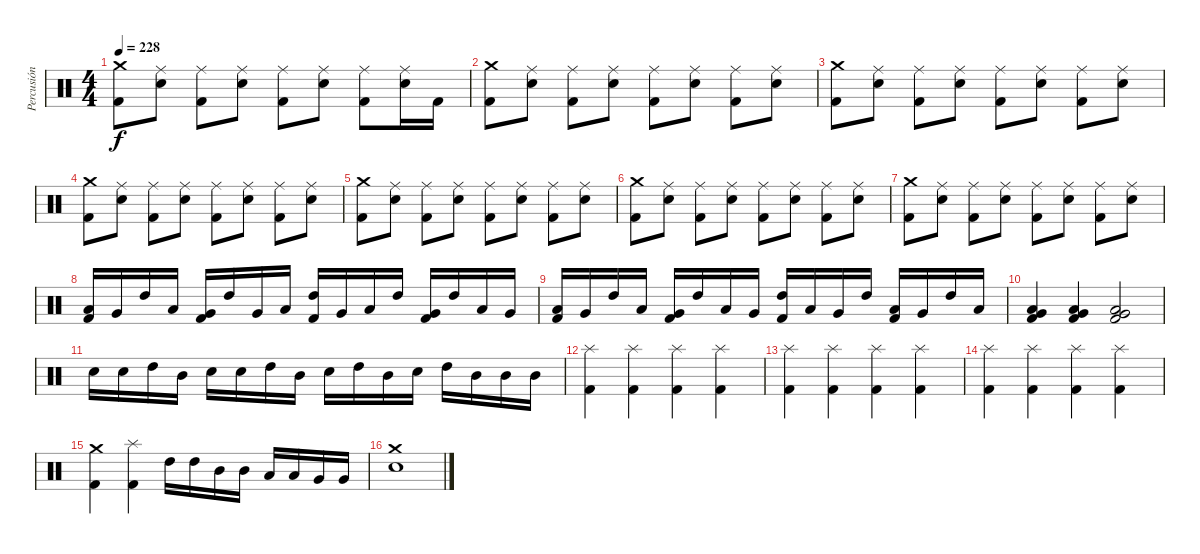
\track ("Percusión" "Percusión") {instrument percussion}
\staff {score}
\articulation defaults
\ts (4 4)
\tempo 228
\clef neutral
\ks c
("Crash medium (hit)" "Kick (hit) 2").8{dy f} ("Ride (middle)" "Electric Snare (hit)").8 ("Ride (middle)" "Kick (hit) 2").8 ("Ride (middle)" "Electric Snare (hit)").8 ("Ride (middle)" "Kick (hit) 2").8 ("Ride (middle)" "Electric Snare (hit)").8 ("Ride (middle)" "Kick (hit) 2").8 ("Ride (middle)" "Electric Snare (hit)").16 "Kick (hit) 2".16 |
("Crash medium (hit)" "Kick (hit) 2").8 ("Ride (middle)" "Electric Snare (hit)").8 ("Ride (middle)" "Kick (hit) 2").8 ("Ride (middle)" "Electric Snare (hit)").8 ("Ride (middle)" "Kick (hit) 2").8 ("Ride (middle)" "Electric Snare (hit)").8 ("Ride (middle)" "Kick (hit) 2").8 ("Ride (middle)" "Electric Snare (hit)").8 |
("Crash medium (hit)" "Kick (hit) 2").8 ("Ride (middle)" "Electric Snare (hit)").8 ("Ride (middle)" "Kick (hit) 2").8 ("Ride (middle)" "Electric Snare (hit)").8 ("Ride (middle)" "Kick (hit) 2").8 ("Ride (middle)" "Electric Snare (hit)").8 ("Ride (middle)" "Kick (hit) 2").8 ("Ride (middle)" "Electric Snare (hit)").8 |
("Crash medium (hit)" "Kick (hit) 2").8 ("Ride (middle)" "Electric Snare (hit)").8 ("Ride (middle)" "Kick (hit) 2").8 ("Ride (middle)" "Electric Snare (hit)").8 ("Ride (middle)" "Kick (hit) 2").8 ("Ride (middle)" "Electric Snare (hit)").8 ("Ride (middle)" "Kick (hit) 2").8 ("Ride (middle)" "Electric Snare (hit)").8 |
("Crash medium (hit)" "Kick (hit) 2").8 ("Ride (middle)" "Electric Snare (hit)").8 ("Ride (middle)" "Kick (hit) 2").8 ("Ride (middle)" "Electric Snare (hit)").8 ("Ride (middle)" "Kick (hit) 2").8 ("Ride (middle)" "Electric Snare (hit)").8 ("Ride (middle)" "Kick (hit) 2").8 ("Ride (middle)" "Electric Snare (hit)").8 |
("Crash medium (hit)" "Kick (hit) 2").8 ("Ride (middle)" "Electric Snare (hit)").8 ("Ride (middle)" "Kick (hit) 2").8 ("Ride (middle)" "Electric Snare (hit)").8 ("Ride (middle)" "Kick (hit) 2").8 ("Ride (middle)" "Electric Snare (hit)").8 ("Ride (middle)" "Kick (hit) 2").8 ("Ride (middle)" "Electric Snare (hit)").8 |
("Crash medium (hit)" "Kick (hit) 2").8 ("Ride (middle)" "Electric Snare (hit)").8 ("Ride (middle)" "Kick (hit) 2").8 ("Ride (middle)" "Electric Snare (hit)").8 ("Ride (middle)" "Kick (hit) 2").8 ("Ride (middle)" "Electric Snare (hit)").8 ("Ride (middle)" "Kick (hit) 2").8 ("Ride (middle)" "Electric Snare (hit)").8 |
("Low Tom (hit)" "Kick (hit) 2").16 "Very Low Tom (hit)".16 "High Tom (hit)".16 "Low Tom (hit)".16 ("Very Low Tom (hit)" "Kick (hit) 2").16 "High Tom (hit)".16 "Very Low Tom (hit)".16 "Low Tom (hit)".16 ("High Tom (hit)" "Kick (hit) 2").16 "Very Low Tom (hit)".16 "Low Tom (hit)".16 "High Tom (hit)".16 ("Very Low Tom (hit)" "Kick (hit) 2").16 "High Tom (hit)".16 "Low Tom (hit)".16 "Very Low Tom (hit)".16 |
("Low Tom (hit)" "Kick (hit) 2").16 "Very Low Tom (hit)".16 "High Tom (hit)".16 "Low Tom (hit)".16 ("Very Low Tom (hit)" "Kick (hit) 2").16 "High Tom (hit)".16 "Low Tom (hit)".16 "Very Low Tom (hit)".16 ("High Tom (hit)" "Kick (hit) 2").16 "Low Tom (hit)".16 "Very Low Tom (hit)".16 "High Tom (hit)".16 ("Low Tom (hit)" "Kick (hit) 2").16 "Very Low Tom (hit)".16 "High Tom (hit)".16 "Low Tom (hit)".16 |
("Kick (hit) 2" "Low Tom (hit)" "Very Low Tom (hit)").4 ("Kick (hit) 2" "Low Tom (hit)" "Very Low Tom (hit)").4 ("Kick (hit) 2" "Low Tom (hit)" "Very Low Tom (hit)").2 |
"Electric Snare (hit)".16 "Electric Snare (hit)".16 "High Tom (hit)".16 "Mid Tom (hit)".16 "Electric Snare (hit)".16 "Electric Snare (hit)".16 "High Tom (hit)".16 "Mid Tom (hit)".16 "Electric Snare (hit)".16 "High Tom (hit)".16 "Mid Tom (hit)".16 "Electric Snare (hit)".16 "High Tom (hit)".16 "Mid Tom (hit)".16 "Mid Tom (hit)".16 "Mid Tom (hit)".16 |
("Splash (hit)" "Kick (hit) 2").4 ("Splash (hit)" "Kick (hit) 2").4 ("Splash (hit)" "Kick (hit) 2").4 ("Splash (hit)" "Kick (hit) 2").4 |
("Splash (hit)" "Kick (hit) 2").4 ("Splash (hit)" "Kick (hit) 2").4 ("Splash (hit)" "Kick (hit) 2").4 ("Splash (hit)" "Kick (hit) 2").4 |
("Splash (hit)" "Kick (hit) 2").4 ("Splash (hit)" "Kick (hit) 2").4 ("Splash (hit)" "Kick (hit) 2").4 ("Splash (hit)" "Kick (hit) 2").4 |
("Crash medium (hit)" "Kick (hit) 2").4 ("Splash (hit)" "Kick (hit) 2").4 "High Tom (hit)".16 "High Tom (hit)".16 "Mid Tom (hit)".16 "Mid Tom (hit)".16 "Low Tom (hit)".16 "Low Tom (hit)".16 "Very Low Tom (hit)".16 "Very Low Tom (hit)".16 |
("Crash medium (hit)" "Electric Snare (hit)").1
